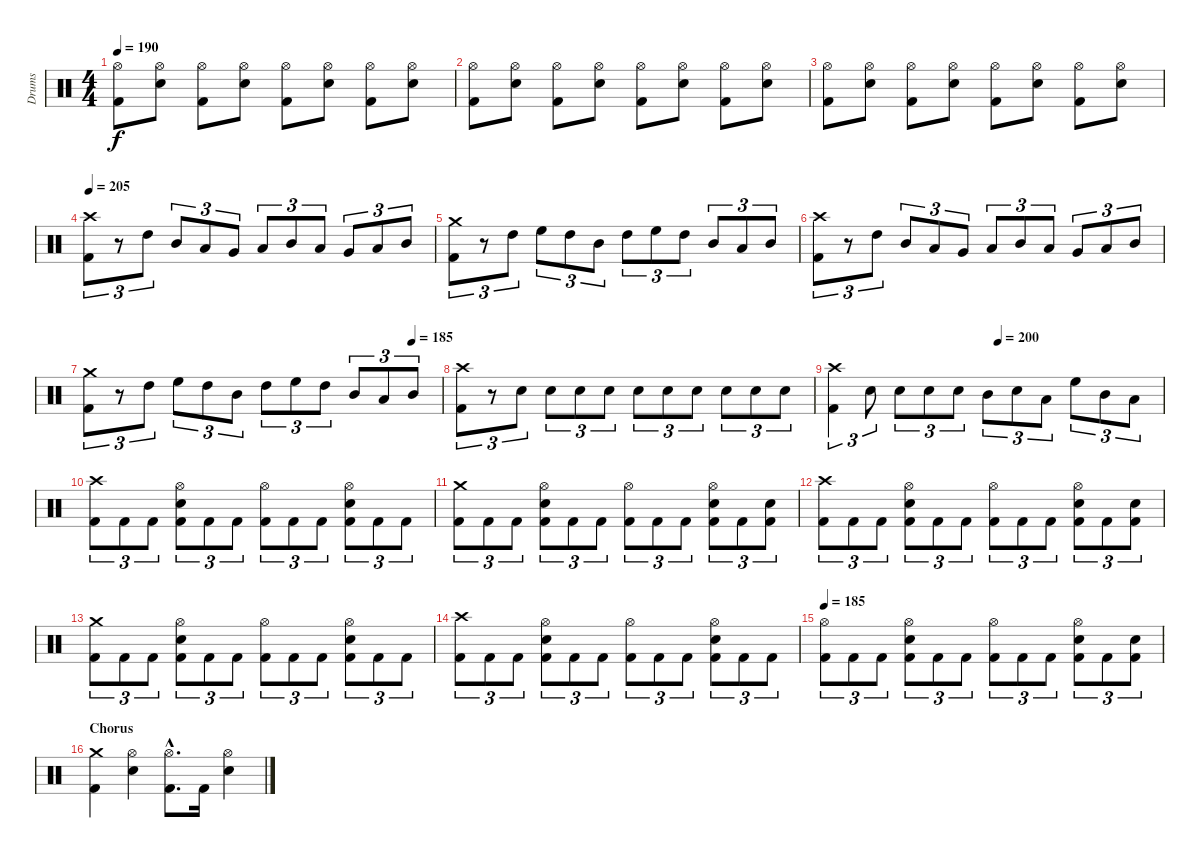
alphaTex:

\track ("Drums" "Drums") {instrument percussion}
\staff {score}
\articulation defaults
\ts (4 4)
\tempo 190
\clef neutral
\ks c
("Hi-Hat (open)" "Kick (hit) 2").8{dy f} ("Hi-Hat (open)" "Snare (hit) 2").8 ("Hi-Hat (open)" "Kick (hit) 2").8 ("Hi-Hat (open)" "Snare (hit) 2").8 ("Hi-Hat (open)" "Kick (hit) 2").8 ("Hi-Hat (open)" "Snare (hit) 2").8 ("Hi-Hat (open)" "Kick (hit) 2").8 ("Hi-Hat (open)" "Snare (hit) 2").8 |
("Hi-Hat (open)" "Kick (hit) 2").8 ("Hi-Hat (open)" "Snare (hit) 2").8 ("Hi-Hat (open)" "Kick (hit) 2").8 ("Hi-Hat (open)" "Snare (hit) 2").8 ("Hi-Hat (open)" "Kick (hit) 2").8 ("Hi-Hat (open)" "Snare (hit) 2").8 ("Hi-Hat (open)" "Kick (hit) 2").8 ("Hi-Hat (open)" "Snare (hit) 2").8 |
("Hi-Hat (open)" "Kick (hit) 2").8 ("Hi-Hat (open)" "Snare (hit) 2").8 ("Hi-Hat (open)" "Kick (hit) 2").8 ("Hi-Hat (open)" "Snare (hit) 2").8 ("Hi-Hat (open)" "Kick (hit) 2").8 ("Hi-Hat (open)" "Snare (hit) 2").8 ("Hi-Hat (open)" "Kick (hit) 2").8 ("Hi-Hat (open)" "Snare (hit) 2").8 |
\tempo 205
("Crash high (hit)" "Kick (hit) 2").8{tu (3 2)} r.8{tu (3 2)} "High Tom (hit)".8{tu (3 2)} "Mid Tom (hit)".8{tu (3 2)} "Low Tom (hit)".8{tu (3 2)} "Very Low Tom (hit)".8{tu (3 2)} "Low Tom (hit)".8{tu (3 2)} "Mid Tom (hit)".8{tu (3 2)} "Low Tom (hit)".8{tu (3 2)} "Very Low Tom (hit)".8{tu (3 2)} "Low Tom (hit)".8{tu (3 2)} "Mid Tom (hit)".8{tu (3 2)} |
("Crash medium (hit)" "Kick (hit) 2").8{tu (3 2)} r.8{tu (3 2)} "High Tom (hit)".8{tu (3 2)} "High Floor Tom (hit)".8{tu (3 2)} "High Tom (hit)".8{tu (3 2)} "Mid Tom (hit)".8{tu (3 2)} "High Tom (hit)".8{tu (3 2)} "High Floor Tom (hit)".8{tu (3 2)} "High Tom (hit)".8{tu (3 2)} "Mid Tom (hit)".8{tu (3 2)} "Low Tom (hit)".8{tu (3 2)} "Mid Tom (hit)".8{tu (3 2)} |
("Crash high (hit)" "Kick (hit) 2").8{tu (3 2)} r.8{tu (3 2)} "High Tom (hit)".8{tu (3 2)} "Mid Tom (hit)".8{tu (3 2)} "Low Tom (hit)".8{tu (3 2)} "Very Low Tom (hit)".8{tu (3 2)} "Low Tom (hit)".8{tu (3 2)} "Mid Tom (hit)".8{tu (3 2)} "Low Tom (hit)".8{tu (3 2)} "Very Low Tom (hit)".8{tu (3 2)} "Low Tom (hit)".8{tu (3 2)} "Mid Tom (hit)".8{tu (3 2)} |
\tempo (185 0.9166666666666666)
("Crash medium (hit)" "Kick (hit) 2").8{tu (3 2)} r.8{tu (3 2)} "High Tom (hit)".8{tu (3 2)} "High Floor Tom (hit)".8{tu (3 2)} "High Tom (hit)".8{tu (3 2)} "Mid Tom (hit)".8{tu (3 2)} "High Tom (hit)".8{tu (3 2)} "High Floor Tom (hit)".8{tu (3 2)} "High Tom (hit)".8{tu (3 2)} "Mid Tom (hit)".8{tu (3 2)} "Low Tom (hit)".8{tu (3 2)} "Mid Tom (hit)".8{tu (3 2)} |
("Crash high (hit)" "Kick (hit) 2").8{tu (3 2)} r.8{tu (3 2)} "Snare (hit) 2".8{tu (3 2)} "Snare (hit) 2".8{tu (3 2)} "Snare (hit) 2".8{tu (3 2)} "Snare (hit) 2".8{tu (3 2)} "Snare (hit) 2".8{tu (3 2)} "Snare (hit) 2".8{tu (3 2)} "Snare (hit) 2".8{tu (3 2)} "Snare (hit) 2".8{tu (3 2)} "Snare (hit) 2".8{tu (3 2)} "Snare (hit) 2".8{tu (3 2)} |
\tempo (200 0.5)
("Crash high (hit)" "Kick (hit) 2").4{tu (3 2)} "Snare (hit) 2".8{tu (3 2)} "Snare (hit) 2".8{tu (3 2)} "Snare (hit) 2".8{tu (3 2)} "Snare (hit) 2".8{tu (3 2)} "Mid Tom (hit)".8{tu (3 2)} "Snare (hit) 2".8{tu (3 2)} "Low Tom (hit)".8{tu (3 2)} "High Floor Tom (hit)".8{tu (3 2)} "Mid Tom (hit)".8{tu (3 2)} "Low Tom (hit)".8{tu (3 2)} |
("Crash high (hit)" "Kick (hit) 2").8{tu (3 2)} "Kick (hit) 2".8{tu (3 2)} "Kick (hit) 2".8{tu (3 2)} ("Hi-Hat (open)" "Snare (hit) 2" "Kick (hit) 2").8{tu (3 2)} "Kick (hit) 2".8{tu (3 2)} "Kick (hit) 2".8{tu (3 2)} ("Hi-Hat (open)" "Kick (hit) 2").8{tu (3 2)} "Kick (hit) 2".8{tu (3 2)} "Kick (hit) 2".8{tu (3 2)} ("Hi-Hat (open)" "Snare (hit) 2" "Kick (hit) 2").8{tu (3 2)} "Kick (hit) 2".8{tu (3 2)} "Kick (hit) 2".8{tu (3 2)} |
("Crash medium (hit)" "Kick (hit) 2").8{tu (3 2)} "Kick (hit) 2".8{tu (3 2)} "Kick (hit) 2".8{tu (3 2)} ("Hi-Hat (open)" "Snare (hit) 2" "Kick (hit) 2").8{tu (3 2)} "Kick (hit) 2".8{tu (3 2)} "Kick (hit) 2".8{tu (3 2)} ("Hi-Hat (open)" "Kick (hit) 2").8{tu (3 2)} "Kick (hit) 2".8{tu (3 2)} "Kick (hit) 2".8{tu (3 2)} ("Hi-Hat (open)" "Snare (hit) 2" "Kick (hit) 2").8{tu (3 2)} "Kick (hit) 2".8{tu (3 2)} ("Snare (hit) 2" "Kick (hit) 2").8{tu (3 2)} |
("Crash high (hit)" "Kick (hit) 2").8{tu (3 2)} "Kick (hit) 2".8{tu (3 2)} "Kick (hit) 2".8{tu (3 2)} ("Hi-Hat (open)" "Snare (hit) 2" "Kick (hit) 2").8{tu (3 2)} "Kick (hit) 2".8{tu (3 2)} "Kick (hit) 2".8{tu (3 2)} ("Hi-Hat (open)" "Kick (hit) 2").8{tu (3 2)} "Kick (hit) 2".8{tu (3 2)} "Kick (hit) 2".8{tu (3 2)} ("Hi-Hat (open)" "Snare (hit) 2" "Kick (hit) 2").8{tu (3 2)} "Kick (hit) 2".8{tu (3 2)} ("Snare (hit) 2" "Kick (hit) 2").8{tu (3 2)} |
("Crash medium (hit)" "Kick (hit) 2").8{tu (3 2)} "Kick (hit) 2".8{tu (3 2)} "Kick (hit) 2".8{tu (3 2)} ("Hi-Hat (open)" "Snare (hit) 2" "Kick (hit) 2").8{tu (3 2)} "Kick (hit) 2".8{tu (3 2)} "Kick (hit) 2".8{tu (3 2)} ("Hi-Hat (open)" "Kick (hit) 2").8{tu (3 2)} "Kick (hit) 2".8{tu (3 2)} "Kick (hit) 2".8{tu (3 2)} ("Hi-Hat (open)" "Snare (hit) 2" "Kick (hit) 2").8{tu (3 2)} "Kick (hit) 2".8{tu (3 2)} "Kick (hit) 2".8{tu (3 2)} |
("Crash high (hit)" "Kick (hit) 2").8{tu (3 2)} "Kick (hit) 2".8{tu (3 2)} "Kick (hit) 2".8{tu (3 2)} ("Hi-Hat (open)" "Snare (hit) 2" "Kick (hit) 2").8{tu (3 2)} "Kick (hit) 2".8{tu (3 2)} "Kick (hit) 2".8{tu (3 2)} ("Hi-Hat (open)" "Kick (hit) 2").8{tu (3 2)} "Kick (hit) 2".8{tu (3 2)} "Kick (hit) 2".8{tu (3 2)} ("Hi-Hat (open)" "Snare (hit) 2" "Kick (hit) 2").8{tu (3 2)} "Kick (hit) 2".8{tu (3 2)} "Kick (hit) 2".8{tu (3 2)} |
\tempo 185
("Hi-Hat (open)" "Kick (hit) 2").8{tu (3 2)} "Kick (hit) 2".8{tu (3 2)} "Kick (hit) 2".8{tu (3 2)} ("Hi-Hat (open)" "Snare (hit) 2" "Kick (hit) 2").8{tu (3 2)} "Kick (hit) 2".8{tu (3 2)} "Kick (hit) 2".8{tu (3 2)} ("Hi-Hat (open)" "Kick (hit) 2").8{tu (3 2)} "Kick (hit) 2".8{tu (3 2)} "Kick (hit) 2".8{tu (3 2)} ("Hi-Hat (open)" "Snare (hit) 2" "Kick (hit) 2").8{tu (3 2)} "Kick (hit) 2".8{tu (3 2)} ("Snare (hit) 2" "Kick (hit) 2").8{tu (3 2)} |
\section ("" "Chorus")
("Crash medium (hit)" "Kick (hit) 2").4 ("Hi-Hat (open)" "Snare (hit) 2").4 ("Hi-Hat (open)"{hac} "Kick (hit) 2"{hac}).8{d} "Kick (hit) 2".16 ("Hi-Hat (open)" "Snare (hit) 2").4
